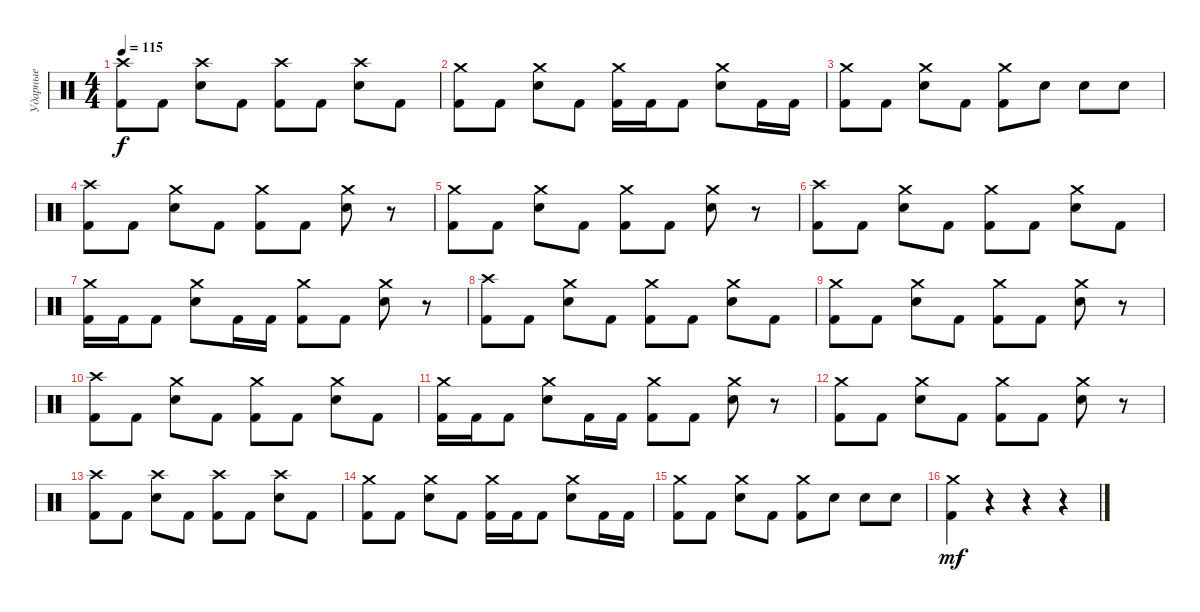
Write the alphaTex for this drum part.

\track ("Ударные" "Ударные") {instrument percussion}
\staff {score}
\articulation defaults
\ts (4 4)
\tempo 115
\clef neutral
\ks c
("Crash high (hit)" "Kick (hit) 2").8{dy f} "Kick (hit) 2".8 ("Crash high (hit)" "Electric Snare (hit)").8 "Kick (hit) 2".8 ("Crash high (hit)" "Kick (hit) 2").8 "Kick (hit) 2".8 ("Crash high (hit)" "Electric Snare (hit)").8 "Kick (hit) 2".8 |
("Crash medium (hit)" "Kick (hit) 2").8 "Kick (hit) 2".8 ("Crash medium (hit)" "Electric Snare (hit)").8 "Kick (hit) 2".8 ("Crash medium (hit)" "Kick (hit) 2").16 "Kick (hit) 2".16 "Kick (hit) 2".8 ("Crash medium (hit)" "Electric Snare (hit)").8 "Kick (hit) 2".16 "Kick (hit) 2".16 |
("Crash medium (hit)" "Kick (hit) 2").8 "Kick (hit) 2".8 ("Crash medium (hit)" "Electric Snare (hit)").8 "Kick (hit) 2".8 ("Crash medium (hit)" "Kick (hit) 2").8 "Electric Snare (hit)".8 "Electric Snare (hit)".8 "Electric Snare (hit)".8 |
("Crash high (hit)" "Kick (hit) 2").8 "Kick (hit) 2".8 ("Crash medium (hit)" "Electric Snare (hit)").8 "Kick (hit) 2".8 ("Crash medium (hit)" "Kick (hit) 2").8 "Kick (hit) 2".8 ("Crash medium (hit)" "Electric Snare (hit)").8 r.8 |
("Crash medium (hit)" "Kick (hit) 2").8 "Kick (hit) 2".8 ("Crash medium (hit)" "Electric Snare (hit)").8 "Kick (hit) 2".8 ("Crash medium (hit)" "Kick (hit) 2").8 "Kick (hit) 2".8 ("Crash medium (hit)" "Electric Snare (hit)").8 r.8 |
("Crash high (hit)" "Kick (hit) 2").8 "Kick (hit) 2".8 ("Crash medium (hit)" "Electric Snare (hit)").8 "Kick (hit) 2".8 ("Crash medium (hit)" "Kick (hit) 2").8 "Kick (hit) 2".8 ("Crash medium (hit)" "Electric Snare (hit)").8 "Kick (hit) 2".8 |
("Crash medium (hit)" "Kick (hit) 2").16 "Kick (hit) 2".16 "Kick (hit) 2".8 ("Crash medium (hit)" "Electric Snare (hit)").8 "Kick (hit) 2".16 "Kick (hit) 2".16 ("Crash medium (hit)" "Kick (hit) 2").8 "Kick (hit) 2".8 ("Crash medium (hit)" "Electric Snare (hit)").8 r.8 |
("Crash high (hit)" "Kick (hit) 2").8 "Kick (hit) 2".8 ("Crash medium (hit)" "Electric Snare (hit)").8 "Kick (hit) 2".8 ("Crash medium (hit)" "Kick (hit) 2").8 "Kick (hit) 2".8 ("Crash medium (hit)" "Electric Snare (hit)").8 "Kick (hit) 2".8 |
("Crash medium (hit)" "Kick (hit) 2").8 "Kick (hit) 2".8 ("Crash medium (hit)" "Electric Snare (hit)").8 "Kick (hit) 2".8 ("Crash medium (hit)" "Kick (hit) 2").8 "Kick (hit) 2".8 ("Crash medium (hit)" "Electric Snare (hit)").8 r.8 |
("Crash high (hit)" "Kick (hit) 2").8 "Kick (hit) 2".8 ("Crash medium (hit)" "Electric Snare (hit)").8 "Kick (hit) 2".8 ("Crash medium (hit)" "Kick (hit) 2").8 "Kick (hit) 2".8 ("Crash medium (hit)" "Electric Snare (hit)").8 "Kick (hit) 2".8 |
("Crash medium (hit)" "Kick (hit) 2").16 "Kick (hit) 2".16 "Kick (hit) 2".8 ("Crash medium (hit)" "Electric Snare (hit)").8 "Kick (hit) 2".16 "Kick (hit) 2".16 ("Crash medium (hit)" "Kick (hit) 2").8 "Kick (hit) 2".8 ("Crash medium (hit)" "Electric Snare (hit)").8 r.8 |
("Crash medium (hit)" "Kick (hit) 2").8 "Kick (hit) 2".8 ("Crash medium (hit)" "Electric Snare (hit)").8 "Kick (hit) 2".8 ("Crash medium (hit)" "Kick (hit) 2").8 "Kick (hit) 2".8 ("Crash medium (hit)" "Electric Snare (hit)").8 r.8 |
("Crash high (hit)" "Kick (hit) 2").8 "Kick (hit) 2".8 ("Crash high (hit)" "Electric Snare (hit)").8 "Kick (hit) 2".8 ("Crash high (hit)" "Kick (hit) 2").8 "Kick (hit) 2".8 ("Crash high (hit)" "Electric Snare (hit)").8 "Kick (hit) 2".8 |
("Crash medium (hit)" "Kick (hit) 2").8 "Kick (hit) 2".8 ("Crash medium (hit)" "Electric Snare (hit)").8 "Kick (hit) 2".8 ("Crash medium (hit)" "Kick (hit) 2").16 "Kick (hit) 2".16 "Kick (hit) 2".8 ("Crash medium (hit)" "Electric Snare (hit)").8 "Kick (hit) 2".16 "Kick (hit) 2".16 |
("Crash medium (hit)" "Kick (hit) 2").8 "Kick (hit) 2".8 ("Crash medium (hit)" "Electric Snare (hit)").8 "Kick (hit) 2".8 ("Crash medium (hit)" "Kick (hit) 2").8 "Electric Snare (hit)".8 "Electric Snare (hit)".8 "Electric Snare (hit)".8 |
("Crash medium (hit)" "Kick (hit) 2").4{dy mf} r.4 r.4 r.4
